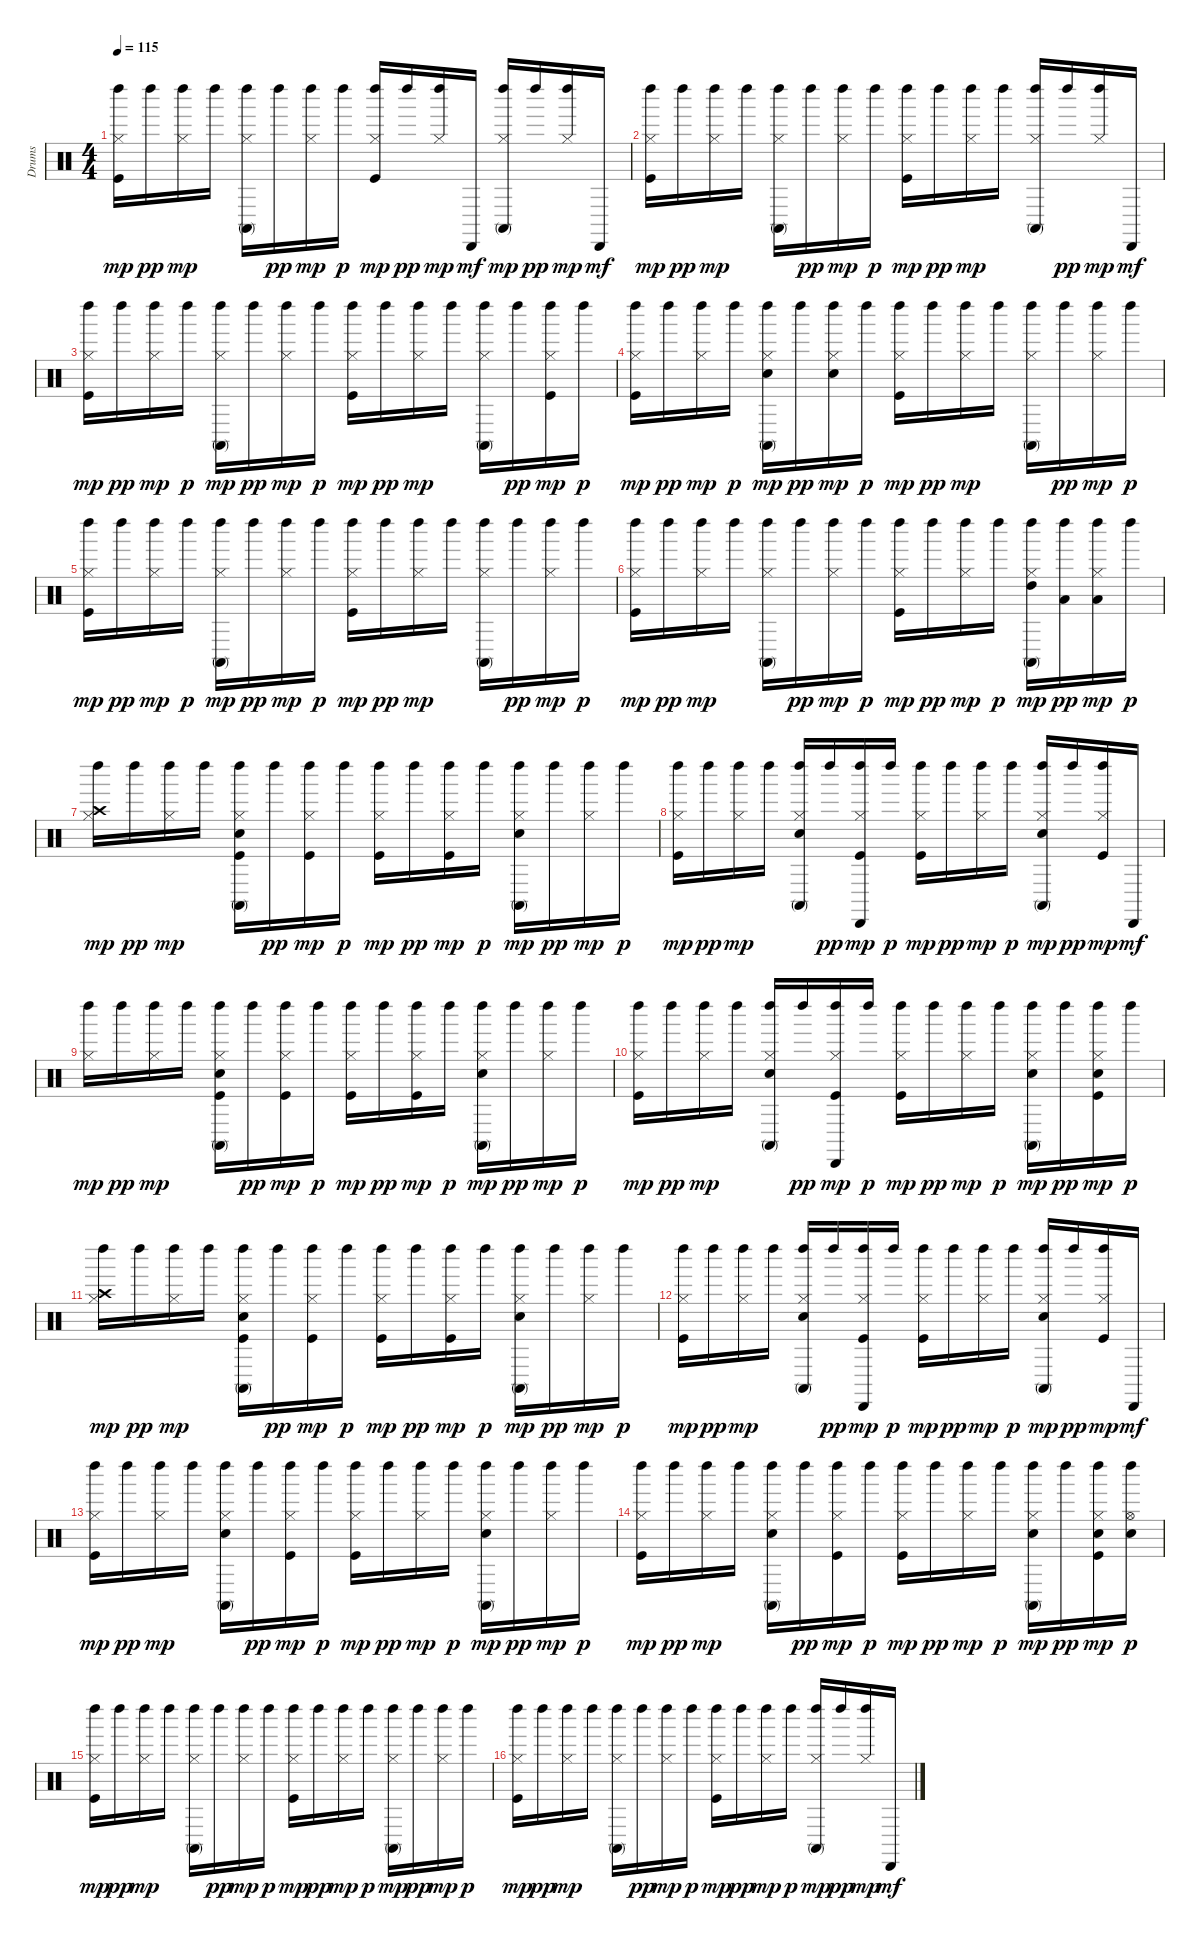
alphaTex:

\track ("Drums" "Drums") {instrument percussion}
\staff {score}
\articulation defaults
\ts (4 4)
\tempo 115
\clef neutral
\ks c
("Kick (hit)" "Hi-Hat (closed)" "Left Maraca (hit)").16{dy mp} "Left Maraca (hit)".16{dy pp} ("Hi-Hat (closed)" "Left Maraca (hit)").16{dy mp} "Left Maraca (hit)".16 ("Hi-Hat (closed)" "Conga high (mute)" "Left Maraca (hit)").16 "Left Maraca (hit)".16{dy pp} ("Hi-Hat (closed)" "Left Maraca (hit)").16{dy mp} "Left Maraca (hit)".16{dy p} ("Kick (hit)" "Hi-Hat (closed)" "Left Maraca (hit)").16{dy mp} "Left Maraca (hit)".16{dy pp} ("Hi-Hat (closed)" "Left Maraca (hit)").16{dy mp} "Cabasa (hit)".16{dy mf} ("Hi-Hat (closed)" "Conga high (mute)" "Left Maraca (hit)").16{dy mp} "Left Maraca (hit)".16{dy pp} ("Hi-Hat (closed)" "Left Maraca (hit)").16{dy mp} "Cabasa (hit)".16{dy mf} |
("Kick (hit)" "Hi-Hat (closed)" "Left Maraca (hit)").16{dy mp} "Left Maraca (hit)".16{dy pp} ("Hi-Hat (closed)" "Left Maraca (hit)").16{dy mp} "Left Maraca (hit)".16 ("Hi-Hat (closed)" "Conga high (mute)" "Left Maraca (hit)").16 "Left Maraca (hit)".16{dy pp} ("Hi-Hat (closed)" "Left Maraca (hit)").16{dy mp} "Left Maraca (hit)".16{dy p} ("Kick (hit)" "Hi-Hat (closed)" "Left Maraca (hit)").16{dy mp} "Left Maraca (hit)".16{dy pp} ("Hi-Hat (closed)" "Left Maraca (hit)").16{dy mp} "Left Maraca (hit)".16 ("Hi-Hat (closed)" "Conga high (mute)" "Left Maraca (hit)").16 "Left Maraca (hit)".16{dy pp} ("Hi-Hat (closed)" "Left Maraca (hit)").16{dy mp} "Cabasa (hit)".16{dy mf} |
("Kick (hit)" "Hi-Hat (closed)" "Left Maraca (hit)").16{dy mp} "Left Maraca (hit)".16{dy pp} ("Hi-Hat (closed)" "Left Maraca (hit)").16{dy mp} "Left Maraca (hit)".16{dy p} ("Hi-Hat (closed)" "Conga high (mute)" "Left Maraca (hit)").16{dy mp} "Left Maraca (hit)".16{dy pp} ("Hi-Hat (closed)" "Left Maraca (hit)").16{dy mp} "Left Maraca (hit)".16{dy p} ("Kick (hit)" "Hi-Hat (closed)" "Left Maraca (hit)").16{dy mp} "Left Maraca (hit)".16{dy pp} ("Hi-Hat (closed)" "Left Maraca (hit)").16{dy mp} "Left Maraca (hit)".16 ("Hi-Hat (closed)" "Conga high (mute)" "Left Maraca (hit)").16 "Left Maraca (hit)".16{dy pp} ("Kick (hit)" "Hi-Hat (closed)" "Left Maraca (hit)").16{dy mp} "Left Maraca (hit)".16{dy p} |
("Kick (hit)" "Hi-Hat (closed)" "Left Maraca (hit)").16{dy mp} "Left Maraca (hit)".16{dy pp} ("Hi-Hat (closed)" "Left Maraca (hit)").16{dy mp} "Left Maraca (hit)".16{dy p} ("Snare (hit) 2" "Hi-Hat (closed)" "Conga high (mute)" "Left Maraca (hit)").16{dy mp} "Left Maraca (hit)".16{dy pp} ("Snare (hit) 2" "Hi-Hat (closed)" "Left Maraca (hit)").16{dy mp} "Left Maraca (hit)".16{dy p} ("Kick (hit)" "Hi-Hat (closed)" "Left Maraca (hit)").16{dy mp} "Left Maraca (hit)".16{dy pp} ("Hi-Hat (closed)" "Left Maraca (hit)").16{dy mp} "Left Maraca (hit)".16 ("Hi-Hat (closed)" "Conga high (mute)" "Left Maraca (hit)").16 "Left Maraca (hit)".16{dy pp} ("Hi-Hat (closed)" "Left Maraca (hit)").16{dy mp} "Left Maraca (hit)".16{dy p} |
("Kick (hit)" "Hi-Hat (closed)" "Left Maraca (hit)").16{dy mp} "Left Maraca (hit)".16{dy pp} ("Hi-Hat (closed)" "Left Maraca (hit)").16{dy mp} "Left Maraca (hit)".16{dy p} ("Hi-Hat (closed)" "Conga high (mute)" "Left Maraca (hit)").16{dy mp} "Left Maraca (hit)".16{dy pp} ("Hi-Hat (closed)" "Left Maraca (hit)").16{dy mp} "Left Maraca (hit)".16{dy p} ("Kick (hit)" "Hi-Hat (closed)" "Left Maraca (hit)").16{dy mp} "Left Maraca (hit)".16{dy pp} ("Hi-Hat (closed)" "Left Maraca (hit)").16{dy mp} "Left Maraca (hit)".16 ("Hi-Hat (closed)" "Conga high (mute)" "Left Maraca (hit)").16 "Left Maraca (hit)".16{dy pp} ("Hi-Hat (closed)" "Left Maraca (hit)").16{dy mp} "Left Maraca (hit)".16{dy p} |
("Kick (hit)" "Hi-Hat (closed)" "Left Maraca (hit)").16{dy mp} "Left Maraca (hit)".16{dy pp} ("Hi-Hat (closed)" "Left Maraca (hit)").16{dy mp} "Left Maraca (hit)".16 ("Hi-Hat (closed)" "Conga high (mute)" "Left Maraca (hit)").16 "Left Maraca (hit)".16{dy pp} ("Hi-Hat (closed)" "Left Maraca (hit)").16{dy mp} "Left Maraca (hit)".16{dy p} ("Kick (hit)" "Hi-Hat (closed)" "Left Maraca (hit)").16{dy mp} "Left Maraca (hit)".16{dy pp} ("Hi-Hat (closed)" "Left Maraca (hit)").16{dy mp} "Left Maraca (hit)".16{dy p} ("Hi-Hat (closed)" "High Tom (hit)" "Conga high (mute)" "Left Maraca (hit)").16{dy mp} ("Low Tom (hit)" "Left Maraca (hit)").16{dy pp} ("Hi-Hat (closed)" "Low Floor Tom (hit)" "Left Maraca (hit)").16{dy mp} "Left Maraca (hit)".16{dy p} |
("Hi-Hat (closed)" "Crash high (hit)" "Left Maraca (hit)").16{dy mp} "Left Maraca (hit)".16{dy pp} ("Hi-Hat (closed)" "Left Maraca (hit)").16{dy mp} "Left Maraca (hit)".16 ("Kick (hit)" "Snare (hit) 2" "Hi-Hat (closed)" "Conga high (mute)" "Left Maraca (hit)").16 "Left Maraca (hit)".16{dy pp} ("Kick (hit)" "Hi-Hat (closed)" "Left Maraca (hit)").16{dy mp} "Left Maraca (hit)".16{dy p} ("Kick (hit)" "Hi-Hat (closed)" "Left Maraca (hit)").16{dy mp} "Left Maraca (hit)".16{dy pp} ("Kick (hit)" "Hi-Hat (closed)" "Left Maraca (hit)").16{dy mp} "Left Maraca (hit)".16{dy p} ("Snare (hit) 2" "Hi-Hat (closed)" "Conga high (mute)" "Left Maraca (hit)").16{dy mp} "Left Maraca (hit)".16{dy pp} ("Hi-Hat (closed)" "Left Maraca (hit)").16{dy mp} "Left Maraca (hit)".16{dy p} |
("Kick (hit)" "Hi-Hat (closed)" "Left Maraca (hit)").16{dy mp} "Left Maraca (hit)".16{dy pp} ("Hi-Hat (closed)" "Left Maraca (hit)").16{dy mp} "Left Maraca (hit)".16 ("Snare (hit) 2" "Hi-Hat (closed)" "Conga high (mute)" "Left Maraca (hit)").16 "Left Maraca (hit)".16{dy pp} ("Kick (hit)" "Hi-Hat (closed)" "Left Maraca (hit)" "Cabasa (hit)").16{dy mp} "Left Maraca (hit)".16{dy p} ("Kick (hit)" "Hi-Hat (closed)" "Left Maraca (hit)").16{dy mp} "Left Maraca (hit)".16{dy pp} ("Hi-Hat (closed)" "Left Maraca (hit)").16{dy mp} "Left Maraca (hit)".16{dy p} ("Snare (hit) 2" "Hi-Hat (closed)" "Conga high (mute)" "Left Maraca (hit)").16{dy mp} "Left Maraca (hit)".16{dy pp} ("Kick (hit)" "Hi-Hat (closed)" "Left Maraca (hit)").16{dy mp} "Cabasa (hit)".16{dy mf} |
("Hi-Hat (closed)" "Left Maraca (hit)").16{dy mp} "Left Maraca (hit)".16{dy pp} ("Hi-Hat (closed)" "Left Maraca (hit)").16{dy mp} "Left Maraca (hit)".16 ("Kick (hit)" "Snare (hit) 2" "Hi-Hat (closed)" "Conga high (mute)" "Left Maraca (hit)").16 "Left Maraca (hit)".16{dy pp} ("Kick (hit)" "Hi-Hat (closed)" "Left Maraca (hit)").16{dy mp} "Left Maraca (hit)".16{dy p} ("Kick (hit)" "Hi-Hat (closed)" "Left Maraca (hit)").16{dy mp} "Left Maraca (hit)".16{dy pp} ("Kick (hit)" "Hi-Hat (closed)" "Left Maraca (hit)").16{dy mp} "Left Maraca (hit)".16{dy p} ("Snare (hit) 2" "Hi-Hat (closed)" "Conga high (mute)" "Left Maraca (hit)").16{dy mp} "Left Maraca (hit)".16{dy pp} ("Hi-Hat (closed)" "Left Maraca (hit)").16{dy mp} "Left Maraca (hit)".16{dy p} |
("Kick (hit)" "Hi-Hat (closed)" "Left Maraca (hit)").16{dy mp} "Left Maraca (hit)".16{dy pp} ("Hi-Hat (closed)" "Left Maraca (hit)").16{dy mp} "Left Maraca (hit)".16 ("Snare (hit) 2" "Hi-Hat (closed)" "Conga high (mute)" "Left Maraca (hit)").16 "Left Maraca (hit)".16{dy pp} ("Kick (hit)" "Hi-Hat (closed)" "Left Maraca (hit)" "Cabasa (hit)").16{dy mp} "Left Maraca (hit)".16{dy p} ("Kick (hit)" "Hi-Hat (closed)" "Left Maraca (hit)").16{dy mp} "Left Maraca (hit)".16{dy pp} ("Hi-Hat (closed)" "Left Maraca (hit)").16{dy mp} "Left Maraca (hit)".16{dy p} ("Snare (hit) 2" "Hi-Hat (closed)" "Conga high (mute)" "Left Maraca (hit)").16{dy mp} "Left Maraca (hit)".16{dy pp} ("Kick (hit)" "Snare (hit) 2" "Hi-Hat (closed)" "Left Maraca (hit)").16{dy mp} "Left Maraca (hit)".16{dy p} |
("Hi-Hat (closed)" "Crash high (hit)" "Left Maraca (hit)").16{dy mp} "Left Maraca (hit)".16{dy pp} ("Hi-Hat (closed)" "Left Maraca (hit)").16{dy mp} "Left Maraca (hit)".16 ("Kick (hit)" "Snare (hit) 2" "Hi-Hat (closed)" "Conga high (mute)" "Left Maraca (hit)").16 "Left Maraca (hit)".16{dy pp} ("Kick (hit)" "Hi-Hat (closed)" "Left Maraca (hit)").16{dy mp} "Left Maraca (hit)".16{dy p} ("Kick (hit)" "Hi-Hat (closed)" "Left Maraca (hit)").16{dy mp} "Left Maraca (hit)".16{dy pp} ("Kick (hit)" "Hi-Hat (closed)" "Left Maraca (hit)").16{dy mp} "Left Maraca (hit)".16{dy p} ("Snare (hit) 2" "Hi-Hat (closed)" "Conga high (mute)" "Left Maraca (hit)").16{dy mp} "Left Maraca (hit)".16{dy pp} ("Hi-Hat (closed)" "Left Maraca (hit)").16{dy mp} "Left Maraca (hit)".16{dy p} |
("Kick (hit)" "Hi-Hat (closed)" "Left Maraca (hit)").16{dy mp} "Left Maraca (hit)".16{dy pp} ("Hi-Hat (closed)" "Left Maraca (hit)").16{dy mp} "Left Maraca (hit)".16 ("Snare (hit) 2" "Hi-Hat (closed)" "Conga high (mute)" "Left Maraca (hit)").16 "Left Maraca (hit)".16{dy pp} ("Kick (hit)" "Hi-Hat (closed)" "Left Maraca (hit)" "Cabasa (hit)").16{dy mp} "Left Maraca (hit)".16{dy p} ("Kick (hit)" "Hi-Hat (closed)" "Left Maraca (hit)").16{dy mp} "Left Maraca (hit)".16{dy pp} ("Hi-Hat (closed)" "Left Maraca (hit)").16{dy mp} "Left Maraca (hit)".16{dy p} ("Snare (hit) 2" "Hi-Hat (closed)" "Conga high (mute)" "Left Maraca (hit)").16{dy mp} "Left Maraca (hit)".16{dy pp} ("Kick (hit)" "Hi-Hat (closed)" "Left Maraca (hit)").16{dy mp} "Cabasa (hit)".16{dy mf} |
("Kick (hit)" "Hi-Hat (closed)" "Left Maraca (hit)").16{dy mp} "Left Maraca (hit)".16{dy pp} ("Hi-Hat (closed)" "Left Maraca (hit)").16{dy mp} "Left Maraca (hit)".16 ("Snare (hit) 2" "Hi-Hat (closed)" "Conga high (mute)" "Left Maraca (hit)").16 "Left Maraca (hit)".16{dy pp} ("Kick (hit)" "Hi-Hat (closed)" "Left Maraca (hit)").16{dy mp} "Left Maraca (hit)".16{dy p} ("Kick (hit)" "Hi-Hat (closed)" "Left Maraca (hit)").16{dy mp} "Left Maraca (hit)".16{dy pp} ("Hi-Hat (closed)" "Left Maraca (hit)").16{dy mp} "Left Maraca (hit)".16{dy p} ("Snare (hit) 2" "Hi-Hat (closed)" "Conga high (mute)" "Left Maraca (hit)").16{dy mp} "Left Maraca (hit)".16{dy pp} ("Hi-Hat (closed)" "Left Maraca (hit)").16{dy mp} "Left Maraca (hit)".16{dy p} |
("Kick (hit)" "Hi-Hat (closed)" "Left Maraca (hit)").16{dy mp} "Left Maraca (hit)".16{dy pp} ("Hi-Hat (closed)" "Left Maraca (hit)").16{dy mp} "Left Maraca (hit)".16 ("Snare (hit) 2" "Hi-Hat (closed)" "Conga high (mute)" "Left Maraca (hit)").16 "Left Maraca (hit)".16{dy pp} ("Kick (hit)" "Hi-Hat (closed)" "Left Maraca (hit)").16{dy mp} "Left Maraca (hit)".16{dy p} ("Kick (hit)" "Hi-Hat (closed)" "Left Maraca (hit)").16{dy mp} "Left Maraca (hit)".16{dy pp} ("Hi-Hat (closed)" "Left Maraca (hit)").16{dy mp} "Left Maraca (hit)".16{dy p} ("Snare (hit) 2" "Hi-Hat (closed)" "Conga high (mute)" "Left Maraca (hit)").16{dy mp} "Left Maraca (hit)".16{dy pp} ("Kick (hit)" "Snare (hit) 2" "Hi-Hat (closed)" "Left Maraca (hit)").16{dy mp} ("Snare (hit) 2" "Hi-Hat (open)" "Left Maraca (hit)").16{dy p} |
("Kick (hit)" "Hi-Hat (closed)" "Left Maraca (hit)").16{dy mp} "Left Maraca (hit)".16{dy pp} ("Hi-Hat (closed)" "Left Maraca (hit)").16{dy mp} "Left Maraca (hit)".16 ("Hi-Hat (closed)" "Conga high (mute)" "Left Maraca (hit)").16 "Left Maraca (hit)".16{dy pp} ("Hi-Hat (closed)" "Left Maraca (hit)").16{dy mp} "Left Maraca (hit)".16{dy p} ("Kick (hit)" "Hi-Hat (closed)" "Left Maraca (hit)").16{dy mp} "Left Maraca (hit)".16{dy pp} ("Hi-Hat (closed)" "Left Maraca (hit)").16{dy mp} "Left Maraca (hit)".16{dy p} ("Hi-Hat (closed)" "Conga high (mute)" "Left Maraca (hit)").16{dy mp} "Left Maraca (hit)".16{dy pp} ("Hi-Hat (closed)" "Left Maraca (hit)").16{dy mp} "Left Maraca (hit)".16{dy p} |
("Kick (hit)" "Hi-Hat (closed)" "Left Maraca (hit)").16{dy mp} "Left Maraca (hit)".16{dy pp} ("Hi-Hat (closed)" "Left Maraca (hit)").16{dy mp} "Left Maraca (hit)".16 ("Hi-Hat (closed)" "Conga high (mute)" "Left Maraca (hit)").16 "Left Maraca (hit)".16{dy pp} ("Hi-Hat (closed)" "Left Maraca (hit)").16{dy mp} "Left Maraca (hit)".16{dy p} ("Kick (hit)" "Hi-Hat (closed)" "Left Maraca (hit)").16{dy mp} "Left Maraca (hit)".16{dy pp} ("Hi-Hat (closed)" "Left Maraca (hit)").16{dy mp} "Left Maraca (hit)".16{dy p} ("Hi-Hat (closed)" "Conga high (mute)" "Left Maraca (hit)").16{dy mp} "Left Maraca (hit)".16{dy pp} ("Hi-Hat (closed)" "Left Maraca (hit)").16{dy mp} "Cabasa (hit)".16{dy mf}
